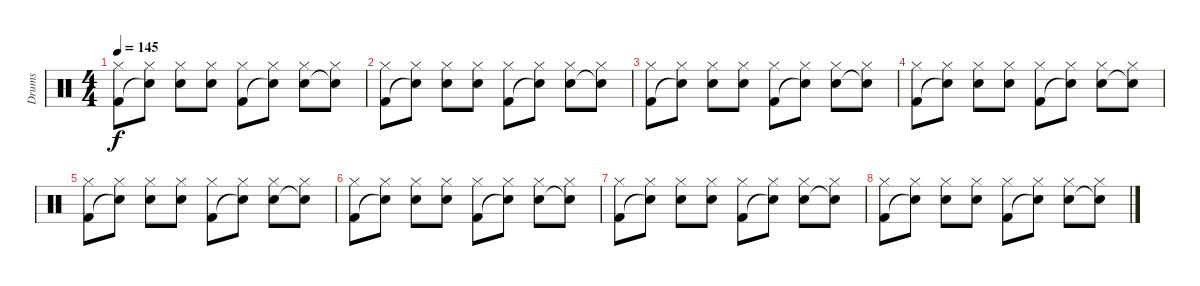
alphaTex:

\track ("Drums" "Drums") {instrument percussion}
\staff {score}
\articulation defaults
\ts (4 4)
\tempo 145
\clef neutral
\ks c
("Kick (hit) 2" "Hi-Hat (closed)").8{dy f volume 12} ("Snare (hit)"{t} "Hi-Hat (closed)").8 ("Snare (hit) 2" "Hi-Hat (closed)").8 ("Snare (hit) 2" "Hi-Hat (closed)").8 ("Kick (hit) 2" "Hi-Hat (closed)").8 ("Snare (hit)"{t} "Hi-Hat (closed)").8 ("Snare (hit) 2" "Hi-Hat (closed)").8 ("Snare (hit)"{t} "Hi-Hat (closed)").8 |
("Kick (hit) 2" "Hi-Hat (closed)").8 ("Snare (hit)"{t} "Hi-Hat (closed)").8 ("Snare (hit) 2" "Hi-Hat (closed)").8 ("Snare (hit) 2" "Hi-Hat (closed)").8 ("Kick (hit) 2" "Hi-Hat (closed)").8 ("Snare (hit)"{t} "Hi-Hat (closed)").8 ("Snare (hit) 2" "Hi-Hat (closed)").8 ("Snare (hit)"{t} "Hi-Hat (closed)").8 |
("Kick (hit) 2" "Hi-Hat (closed)").8{volume 8} ("Snare (hit)"{t} "Hi-Hat (closed)").8 ("Snare (hit) 2" "Hi-Hat (closed)").8 ("Snare (hit) 2" "Hi-Hat (closed)").8 ("Kick (hit) 2" "Hi-Hat (closed)").8 ("Snare (hit)"{t} "Hi-Hat (closed)").8 ("Snare (hit) 2" "Hi-Hat (closed)").8 ("Snare (hit)"{t} "Hi-Hat (closed)").8 |
("Kick (hit) 2" "Hi-Hat (closed)").8 ("Snare (hit)"{t} "Hi-Hat (closed)").8 ("Snare (hit) 2" "Hi-Hat (closed)").8 ("Snare (hit) 2" "Hi-Hat (closed)").8 ("Kick (hit) 2" "Hi-Hat (closed)").8 ("Snare (hit)"{t} "Hi-Hat (closed)").8 ("Snare (hit) 2" "Hi-Hat (closed)").8 ("Snare (hit)"{t} "Hi-Hat (closed)").8 |
("Kick (hit) 2" "Hi-Hat (closed)").8{volume 4} ("Snare (hit)"{t} "Hi-Hat (closed)").8 ("Snare (hit) 2" "Hi-Hat (closed)").8 ("Snare (hit) 2" "Hi-Hat (closed)").8 ("Kick (hit) 2" "Hi-Hat (closed)").8 ("Snare (hit)"{t} "Hi-Hat (closed)").8 ("Snare (hit) 2" "Hi-Hat (closed)").8 ("Snare (hit)"{t} "Hi-Hat (closed)").8 |
("Kick (hit) 2" "Hi-Hat (closed)").8 ("Snare (hit)"{t} "Hi-Hat (closed)").8 ("Snare (hit) 2" "Hi-Hat (closed)").8 ("Snare (hit) 2" "Hi-Hat (closed)").8 ("Kick (hit) 2" "Hi-Hat (closed)").8 ("Snare (hit)"{t} "Hi-Hat (closed)").8 ("Snare (hit) 2" "Hi-Hat (closed)").8 ("Snare (hit)"{t} "Hi-Hat (closed)").8 |
("Kick (hit) 2" "Hi-Hat (closed)").8{volume 0} ("Snare (hit)"{t} "Hi-Hat (closed)").8 ("Snare (hit) 2" "Hi-Hat (closed)").8 ("Snare (hit) 2" "Hi-Hat (closed)").8 ("Kick (hit) 2" "Hi-Hat (closed)").8 ("Snare (hit)"{t} "Hi-Hat (closed)").8 ("Snare (hit) 2" "Hi-Hat (closed)").8 ("Snare (hit)"{t} "Hi-Hat (closed)").8 |
("Kick (hit) 2" "Hi-Hat (closed)").8 ("Snare (hit)"{t} "Hi-Hat (closed)").8 ("Snare (hit) 2" "Hi-Hat (closed)").8 ("Snare (hit) 2" "Hi-Hat (closed)").8 ("Kick (hit) 2" "Hi-Hat (closed)").8 ("Snare (hit)"{t} "Hi-Hat (closed)").8 ("Snare (hit) 2" "Hi-Hat (closed)").8 ("Snare (hit)"{t} "Hi-Hat (closed)").8
